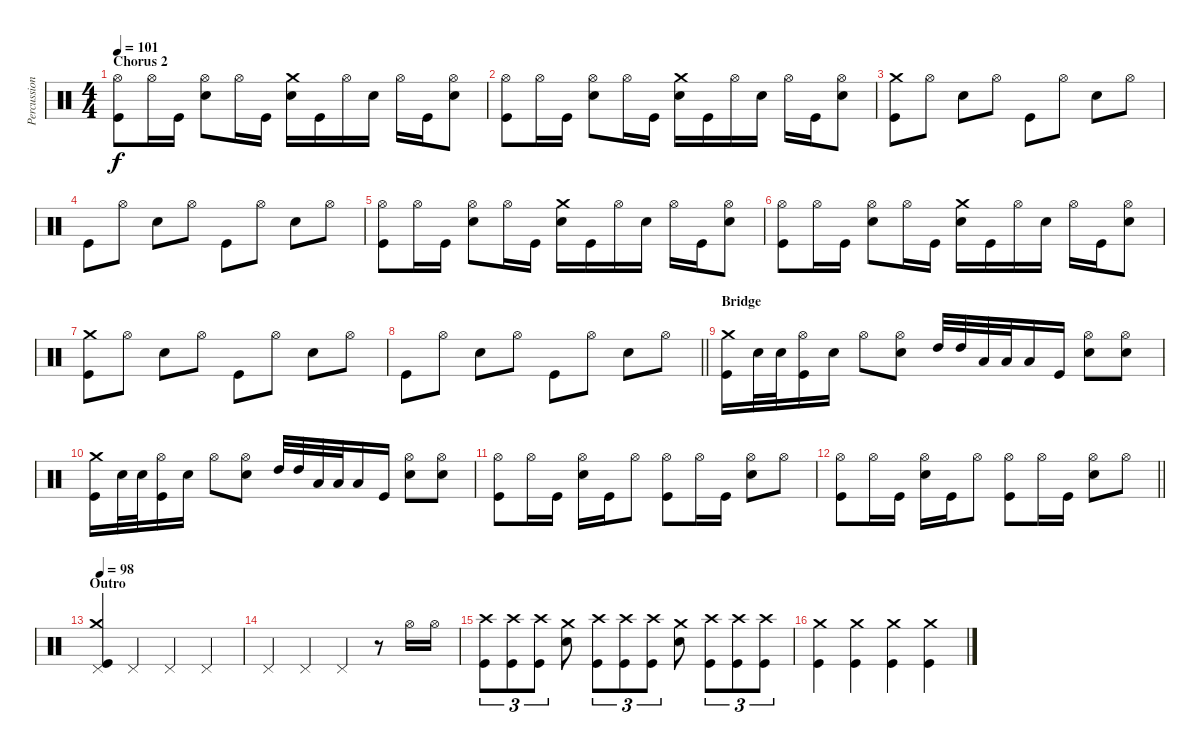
\track ("Percussion" "Percussion") {instrument percussion}
\staff {score}
\articulation defaults
\ts (4 4)
\section ("" "Chorus 2")
\tempo 101
\clef neutral
\ks c
("Hi-Hat (open)" "Kick (hit)").8{dy f} "Hi-Hat (open)".16 "Kick (hit)".16 ("Hi-Hat (open)" "Snare (hit) 2").8 "Hi-Hat (open)".16 "Kick (hit)".16 ("Crash medium (hit)" "Snare (hit) 2").16 "Kick (hit)".16 "Hi-Hat (open)".16 "Snare (hit) 2".16 "Hi-Hat (open)".16 "Kick (hit)".16 ("Hi-Hat (open)" "Snare (hit) 2").8 |
("Hi-Hat (open)" "Kick (hit)").8 "Hi-Hat (open)".16 "Kick (hit)".16 ("Hi-Hat (open)" "Snare (hit) 2").8 "Hi-Hat (open)".16 "Kick (hit)".16 ("Crash medium (hit)" "Snare (hit) 2").16 "Kick (hit)".16 "Hi-Hat (open)".16 "Snare (hit) 2".16 "Hi-Hat (open)".16 "Kick (hit)".16 ("Hi-Hat (open)" "Snare (hit) 2").8 |
("Crash medium (hit)" "Kick (hit)").8 "Hi-Hat (open)".8 "Snare (hit) 2".8 "Hi-Hat (open)".8 "Kick (hit)".8 "Hi-Hat (open)".8 "Snare (hit) 2".8 "Hi-Hat (open)".8 |
"Kick (hit)".8 "Hi-Hat (open)".8 "Snare (hit) 2".8 "Hi-Hat (open)".8 "Kick (hit)".8 "Hi-Hat (open)".8 "Snare (hit) 2".8 "Hi-Hat (open)".8 |
("Hi-Hat (open)" "Kick (hit)").8 "Hi-Hat (open)".16 "Kick (hit)".16 ("Hi-Hat (open)" "Snare (hit) 2").8 "Hi-Hat (open)".16 "Kick (hit)".16 ("Crash medium (hit)" "Snare (hit) 2").16 "Kick (hit)".16 "Hi-Hat (open)".16 "Snare (hit) 2".16 "Hi-Hat (open)".16 "Kick (hit)".16 ("Hi-Hat (open)" "Snare (hit) 2").8 |
("Hi-Hat (open)" "Kick (hit)").8 "Hi-Hat (open)".16 "Kick (hit)".16 ("Hi-Hat (open)" "Snare (hit) 2").8 "Hi-Hat (open)".16 "Kick (hit)".16 ("Crash medium (hit)" "Snare (hit) 2").16 "Kick (hit)".16 "Hi-Hat (open)".16 "Snare (hit) 2".16 "Hi-Hat (open)".16 "Kick (hit)".16 ("Hi-Hat (open)" "Snare (hit) 2").8 |
("Crash medium (hit)" "Kick (hit)").8 "Hi-Hat (open)".8 "Snare (hit) 2".8 "Hi-Hat (open)".8 "Kick (hit)".8 "Hi-Hat (open)".8 "Snare (hit) 2".8 "Hi-Hat (open)".8 |
\barLineRight lightlight "Kick (hit)".8 "Hi-Hat (open)".8 "Snare (hit) 2".8 "Hi-Hat (open)".8 "Kick (hit)".8 "Hi-Hat (open)".8 "Snare (hit) 2".8 "Hi-Hat (open)".8
|
\section ("" "Bridge")
("Crash medium (hit)" "Kick (hit)").16 "Snare (hit) 2".32 "Snare (hit) 2".32 ("Hi-Hat (open)" "Kick (hit)").16 "Snare (hit) 2".16 "Hi-Hat (open)".8 ("Hi-Hat (open)" "Snare (hit) 2").8 "High Tom (hit)".32 "High Tom (hit)".32 "Low Tom (hit)".32 "Low Tom (hit)".32 "Low Tom (hit)".16 "Kick (hit)".16 ("Hi-Hat (open)" "Snare (hit) 2").8 ("Hi-Hat (open)" "Snare (hit) 2").8 |
("Crash medium (hit)" "Kick (hit)").16 "Snare (hit) 2".32 "Snare (hit) 2".32 ("Hi-Hat (open)" "Kick (hit)").16 "Snare (hit) 2".16 "Hi-Hat (open)".8 ("Hi-Hat (open)" "Snare (hit) 2").8 "High Tom (hit)".32 "High Tom (hit)".32 "Low Tom (hit)".32 "Low Tom (hit)".32 "Low Tom (hit)".16 "Kick (hit)".16 ("Hi-Hat (open)" "Snare (hit) 2").8 ("Hi-Hat (open)" "Snare (hit) 2").8 |
("Hi-Hat (open)" "Kick (hit)").8 "Hi-Hat (open)".16 "Kick (hit)".16 ("Hi-Hat (open)" "Snare (hit) 2").16 "Kick (hit)".16 "Hi-Hat (open)".8 ("Hi-Hat (open)" "Kick (hit)").8 "Hi-Hat (open)".16 "Kick (hit)".16 ("Hi-Hat (open)" "Snare (hit) 2").8 "Hi-Hat (open)".8 |
\barLineRight lightlight
("Hi-Hat (open)" "Kick (hit)").8 "Hi-Hat (open)".16 "Kick (hit)".16 ("Hi-Hat (open)" "Snare (hit) 2").16 "Kick (hit)".16 "Hi-Hat (open)".8 ("Hi-Hat (open)" "Kick (hit)").8 "Hi-Hat (open)".16 "Kick (hit)".16 ("Hi-Hat (open)" "Snare (hit) 2").8 "Hi-Hat (open)".8 |
\section ("" "Outro")
\tempo 98
("Crash medium (hit)" "Pedal Hi-Hat (hit)" "Kick (hit)").4 "Pedal Hi-Hat (hit)".4 "Pedal Hi-Hat (hit)".4 "Pedal Hi-Hat (hit)".4 |
"Pedal Hi-Hat (hit)".4 "Pedal Hi-Hat (hit)".4 "Pedal Hi-Hat (hit)".4 r.8 "Hi-Hat (open)".16 "Hi-Hat (open)".16 |
("Crash high (hit)" "Kick (hit)").8{tu (3 2)} ("Crash high (hit)" "Kick (hit)").8{tu (3 2)} ("Crash high (hit)" "Kick (hit)").8{tu (3 2)} ("Crash medium (hit)" "Snare (hit) 2").8 ("Crash high (hit)" "Kick (hit)").8{tu (3 2)} ("Crash high (hit)" "Kick (hit)").8{tu (3 2)} ("Crash high (hit)" "Kick (hit)").8{tu (3 2)} ("Crash medium (hit)" "Snare (hit) 2").8 ("Crash high (hit)" "Kick (hit)").8{tu (3 2)} ("Crash high (hit)" "Kick (hit)").8{tu (3 2)} ("Crash high (hit)" "Kick (hit)").8{tu (3 2)} |
("Crash medium (hit)" "Kick (hit)").4 ("Crash medium (hit)" "Kick (hit)").4 ("Crash medium (hit)" "Kick (hit)").4 ("Crash medium (hit)" "Kick (hit)").4
